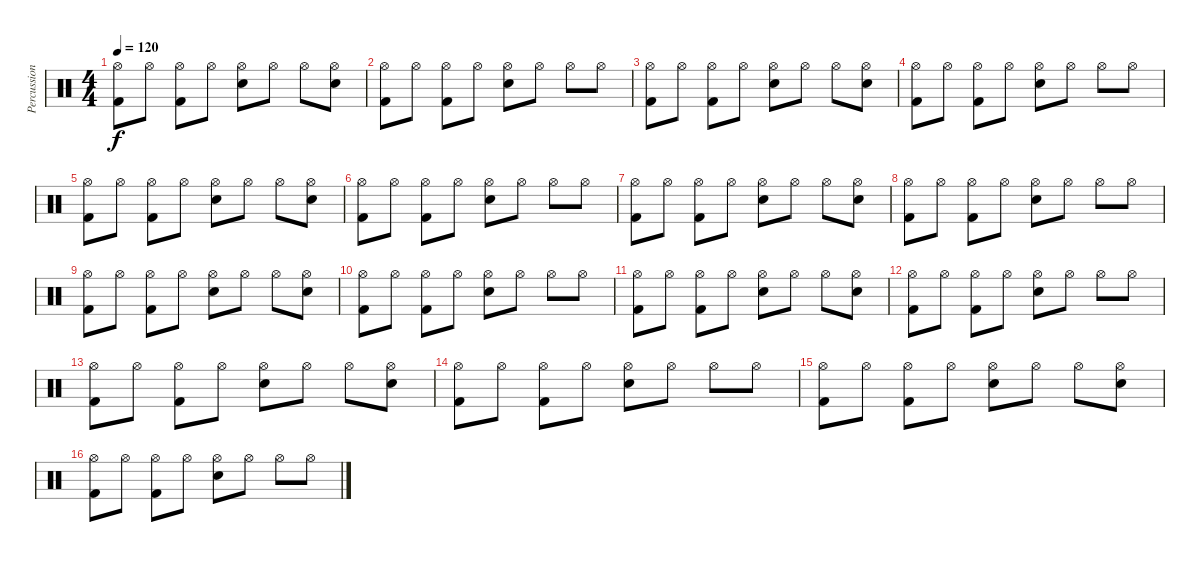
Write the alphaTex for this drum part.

\track ("Percussions" "Percussion") {instrument percussion}
\staff {score}
\articulation defaults
\ts (4 4)
\tempo 120
\clef neutral
\ks c
("Hi-Hat (open)" "Kick (hit) 2").8{dy f} "Hi-Hat (open)".8 ("Hi-Hat (open)" "Kick (hit) 2").8 "Hi-Hat (open)".8 ("Hi-Hat (open)" "Electric Snare (hit)").8 "Hi-Hat (open)".8 "Hi-Hat (open)".8 ("Hi-Hat (open)" "Electric Snare (hit)").8 |
("Hi-Hat (open)" "Kick (hit) 2").8 "Hi-Hat (open)".8 ("Hi-Hat (open)" "Kick (hit) 2").8 "Hi-Hat (open)".8 ("Hi-Hat (open)" "Electric Snare (hit)").8 "Hi-Hat (open)".8 "Hi-Hat (open)".8 "Hi-Hat (open)".8 |
("Hi-Hat (open)" "Kick (hit) 2").8 "Hi-Hat (open)".8 ("Hi-Hat (open)" "Kick (hit) 2").8 "Hi-Hat (open)".8 ("Hi-Hat (open)" "Electric Snare (hit)").8 "Hi-Hat (open)".8 "Hi-Hat (open)".8 ("Hi-Hat (open)" "Electric Snare (hit)").8 |
("Hi-Hat (open)" "Kick (hit) 2").8 "Hi-Hat (open)".8 ("Hi-Hat (open)" "Kick (hit) 2").8 "Hi-Hat (open)".8 ("Hi-Hat (open)" "Electric Snare (hit)").8 "Hi-Hat (open)".8 "Hi-Hat (open)".8 "Hi-Hat (open)".8 |
("Hi-Hat (open)" "Kick (hit) 2").8 "Hi-Hat (open)".8 ("Hi-Hat (open)" "Kick (hit) 2").8 "Hi-Hat (open)".8 ("Hi-Hat (open)" "Electric Snare (hit)").8 "Hi-Hat (open)".8 "Hi-Hat (open)".8 ("Hi-Hat (open)" "Electric Snare (hit)").8 |
("Hi-Hat (open)" "Kick (hit) 2").8 "Hi-Hat (open)".8 ("Hi-Hat (open)" "Kick (hit) 2").8 "Hi-Hat (open)".8 ("Hi-Hat (open)" "Electric Snare (hit)").8 "Hi-Hat (open)".8 "Hi-Hat (open)".8 "Hi-Hat (open)".8 |
("Hi-Hat (open)" "Kick (hit) 2").8 "Hi-Hat (open)".8 ("Hi-Hat (open)" "Kick (hit) 2").8 "Hi-Hat (open)".8 ("Hi-Hat (open)" "Electric Snare (hit)").8 "Hi-Hat (open)".8 "Hi-Hat (open)".8 ("Hi-Hat (open)" "Electric Snare (hit)").8 |
("Hi-Hat (open)" "Kick (hit) 2").8 "Hi-Hat (open)".8 ("Hi-Hat (open)" "Kick (hit) 2").8 "Hi-Hat (open)".8 ("Hi-Hat (open)" "Electric Snare (hit)").8 "Hi-Hat (open)".8 "Hi-Hat (open)".8 "Hi-Hat (open)".8 |
("Hi-Hat (open)" "Kick (hit) 2").8 "Hi-Hat (open)".8 ("Hi-Hat (open)" "Kick (hit) 2").8 "Hi-Hat (open)".8 ("Hi-Hat (open)" "Electric Snare (hit)").8 "Hi-Hat (open)".8 "Hi-Hat (open)".8 ("Hi-Hat (open)" "Electric Snare (hit)").8 |
("Hi-Hat (open)" "Kick (hit) 2").8 "Hi-Hat (open)".8 ("Hi-Hat (open)" "Kick (hit) 2").8 "Hi-Hat (open)".8 ("Hi-Hat (open)" "Electric Snare (hit)").8 "Hi-Hat (open)".8 "Hi-Hat (open)".8 "Hi-Hat (open)".8 |
("Hi-Hat (open)" "Kick (hit) 2").8 "Hi-Hat (open)".8 ("Hi-Hat (open)" "Kick (hit) 2").8 "Hi-Hat (open)".8 ("Hi-Hat (open)" "Electric Snare (hit)").8 "Hi-Hat (open)".8 "Hi-Hat (open)".8 ("Hi-Hat (open)" "Electric Snare (hit)").8 |
("Hi-Hat (open)" "Kick (hit) 2").8 "Hi-Hat (open)".8 ("Hi-Hat (open)" "Kick (hit) 2").8 "Hi-Hat (open)".8 ("Hi-Hat (open)" "Electric Snare (hit)").8 "Hi-Hat (open)".8 "Hi-Hat (open)".8 "Hi-Hat (open)".8 |
("Hi-Hat (open)" "Kick (hit) 2").8 "Hi-Hat (open)".8 ("Hi-Hat (open)" "Kick (hit) 2").8 "Hi-Hat (open)".8 ("Hi-Hat (open)" "Electric Snare (hit)").8 "Hi-Hat (open)".8 "Hi-Hat (open)".8 ("Hi-Hat (open)" "Electric Snare (hit)").8 |
("Hi-Hat (open)" "Kick (hit) 2").8 "Hi-Hat (open)".8 ("Hi-Hat (open)" "Kick (hit) 2").8 "Hi-Hat (open)".8 ("Hi-Hat (open)" "Electric Snare (hit)").8 "Hi-Hat (open)".8 "Hi-Hat (open)".8 "Hi-Hat (open)".8 |
("Hi-Hat (open)" "Kick (hit) 2").8 "Hi-Hat (open)".8 ("Hi-Hat (open)" "Kick (hit) 2").8 "Hi-Hat (open)".8 ("Hi-Hat (open)" "Electric Snare (hit)").8 "Hi-Hat (open)".8 "Hi-Hat (open)".8 ("Hi-Hat (open)" "Electric Snare (hit)").8 |
("Hi-Hat (open)" "Kick (hit) 2").8 "Hi-Hat (open)".8 ("Hi-Hat (open)" "Kick (hit) 2").8 "Hi-Hat (open)".8 ("Hi-Hat (open)" "Electric Snare (hit)").8 "Hi-Hat (open)".8 "Hi-Hat (open)".8 "Hi-Hat (open)".8
